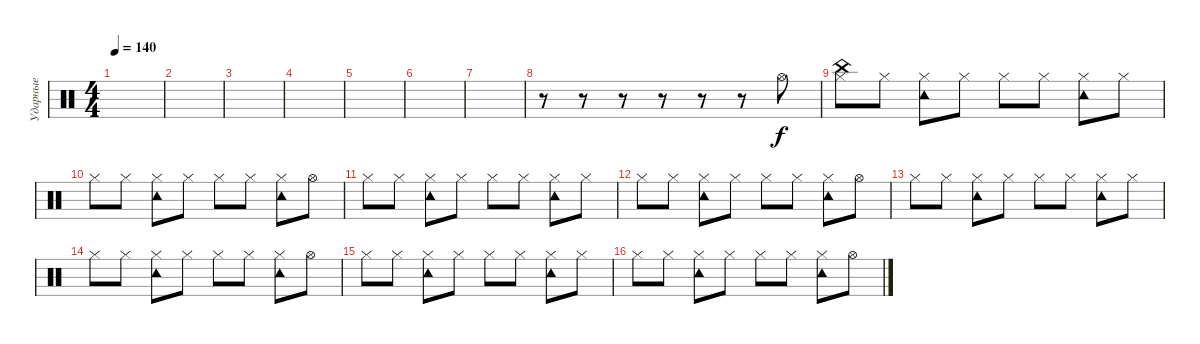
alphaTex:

\track ("Ударные" "Ударные") {instrument percussion}
\staff {score}
\articulation defaults
\ts (4 4)
\tempo 140
\clef neutral
\ks c
|
|
|
|
|
|
|
r.8 r.8 r.8 r.8 r.8 r.8 "Hi-Hat (open)".8 |
("China (hit)" "Hi-Hat (closed)").8 "Hi-Hat (closed)".8 ("Hi-Hat (closed)" "Tambourine (hit)").8 "Hi-Hat (closed)".8 "Hi-Hat (closed)".8 "Hi-Hat (closed)".8 ("Hi-Hat (closed)" "Tambourine (hit)").8 "Hi-Hat (closed)".8 |
"Hi-Hat (closed)".8 "Hi-Hat (closed)".8 ("Hi-Hat (closed)" "Tambourine (hit)").8 "Hi-Hat (closed)".8 "Hi-Hat (closed)".8 "Hi-Hat (closed)".8 ("Hi-Hat (closed)" "Tambourine (hit)").8 "Hi-Hat (open)".8 |
"Hi-Hat (closed)".8 "Hi-Hat (closed)".8 ("Hi-Hat (closed)" "Tambourine (hit)").8 "Hi-Hat (closed)".8 "Hi-Hat (closed)".8 "Hi-Hat (closed)".8 ("Hi-Hat (closed)" "Tambourine (hit)").8 "Hi-Hat (closed)".8 |
"Hi-Hat (closed)".8 "Hi-Hat (closed)".8 ("Hi-Hat (closed)" "Tambourine (hit)").8 "Hi-Hat (closed)".8 "Hi-Hat (closed)".8 "Hi-Hat (closed)".8 ("Hi-Hat (closed)" "Tambourine (hit)").8 "Hi-Hat (open)".8 |
"Hi-Hat (closed)".8 "Hi-Hat (closed)".8 ("Hi-Hat (closed)" "Tambourine (hit)").8 "Hi-Hat (closed)".8 "Hi-Hat (closed)".8 "Hi-Hat (closed)".8 ("Hi-Hat (closed)" "Tambourine (hit)").8 "Hi-Hat (closed)".8 |
"Hi-Hat (closed)".8 "Hi-Hat (closed)".8 ("Hi-Hat (closed)" "Tambourine (hit)").8 "Hi-Hat (closed)".8 "Hi-Hat (closed)".8 "Hi-Hat (closed)".8 ("Hi-Hat (closed)" "Tambourine (hit)").8 "Hi-Hat (open)".8 |
"Hi-Hat (closed)".8 "Hi-Hat (closed)".8 ("Hi-Hat (closed)" "Tambourine (hit)").8 "Hi-Hat (closed)".8 "Hi-Hat (closed)".8 "Hi-Hat (closed)".8 ("Hi-Hat (closed)" "Tambourine (hit)").8 "Hi-Hat (closed)".8 |
"Hi-Hat (closed)".8 "Hi-Hat (closed)".8 ("Hi-Hat (closed)" "Tambourine (hit)").8 "Hi-Hat (closed)".8 "Hi-Hat (closed)".8 "Hi-Hat (closed)".8 ("Hi-Hat (closed)" "Tambourine (hit)").8 "Hi-Hat (open)".8
